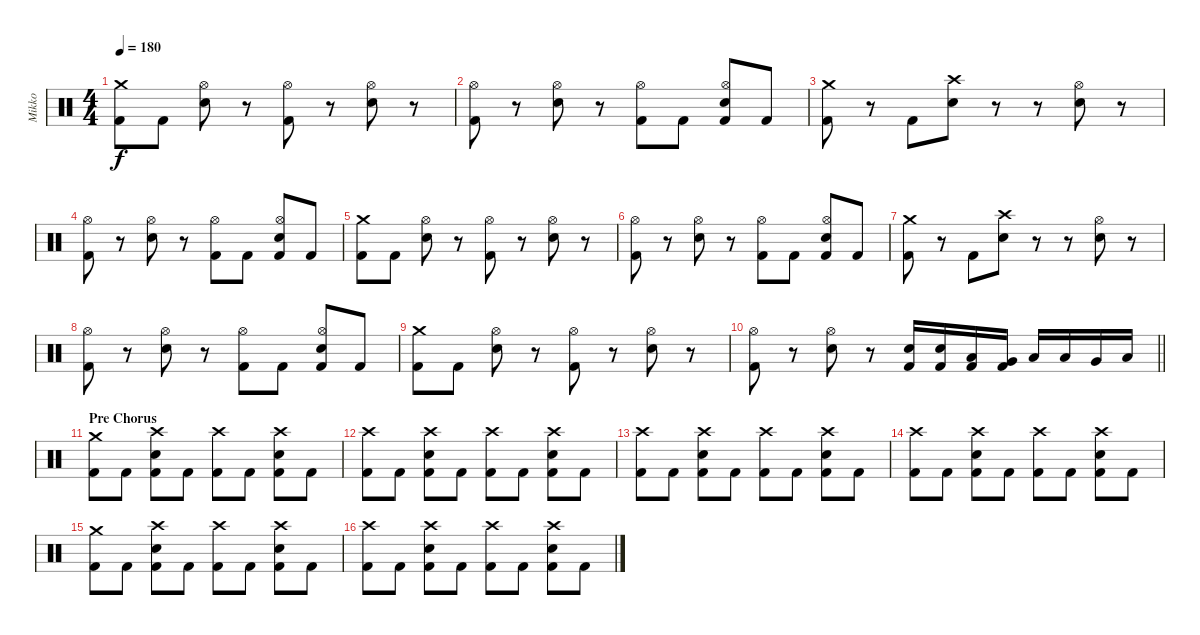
\track ("Mikko" "Mikko") {instrument percussion}
\staff {score}
\articulation defaults
\ts (4 4)
\tempo 180
\clef neutral
\ks c
("Crash medium (hit)" "Kick (hit) 2").8{dy f} "Kick (hit) 2".8 ("Hi-Hat (open)" "Electric Snare (hit)").8 r.8 ("Hi-Hat (open)" "Kick (hit) 2").8 r.8 ("Hi-Hat (open)" "Electric Snare (hit)").8 r.8 |
("Hi-Hat (open)" "Kick (hit) 2").8 r.8 ("Hi-Hat (open)" "Electric Snare (hit)").8 r.8 ("Hi-Hat (open)" "Kick (hit) 2").8 "Kick (hit) 2".8 ("Hi-Hat (open)" "Electric Snare (hit)" "Kick (hit) 2").8 "Kick (hit) 2".8 |
("Crash medium (hit)" "Kick (hit) 2").8 r.8 "Kick (hit) 2".8 ("Crash high (hit)" "Electric Snare (hit)").8 r.8 r.8 ("Hi-Hat (open)" "Electric Snare (hit)").8 r.8 |
("Hi-Hat (open)" "Kick (hit) 2").8 r.8 ("Hi-Hat (open)" "Electric Snare (hit)").8 r.8 ("Hi-Hat (open)" "Kick (hit) 2").8 "Kick (hit) 2".8 ("Hi-Hat (open)" "Electric Snare (hit)" "Kick (hit) 2").8 "Kick (hit) 2".8 |
("Crash medium (hit)" "Kick (hit) 2").8 "Kick (hit) 2".8 ("Hi-Hat (open)" "Electric Snare (hit)").8 r.8 ("Hi-Hat (open)" "Kick (hit) 2").8 r.8 ("Hi-Hat (open)" "Electric Snare (hit)").8 r.8 |
("Hi-Hat (open)" "Kick (hit) 2").8 r.8 ("Hi-Hat (open)" "Electric Snare (hit)").8 r.8 ("Hi-Hat (open)" "Kick (hit) 2").8 "Kick (hit) 2".8 ("Hi-Hat (open)" "Electric Snare (hit)" "Kick (hit) 2").8 "Kick (hit) 2".8 |
("Crash medium (hit)" "Kick (hit) 2").8 r.8 "Kick (hit) 2".8 ("Crash high (hit)" "Electric Snare (hit)").8 r.8 r.8 ("Hi-Hat (open)" "Electric Snare (hit)").8 r.8 |
("Hi-Hat (open)" "Kick (hit) 2").8 r.8 ("Hi-Hat (open)" "Electric Snare (hit)").8 r.8 ("Hi-Hat (open)" "Kick (hit) 2").8 "Kick (hit) 2".8 ("Hi-Hat (open)" "Electric Snare (hit)" "Kick (hit) 2").8 "Kick (hit) 2".8 |
("Crash medium (hit)" "Kick (hit) 2").8 "Kick (hit) 2".8 ("Hi-Hat (open)" "Electric Snare (hit)").8 r.8 ("Hi-Hat (open)" "Kick (hit) 2").8 r.8 ("Hi-Hat (open)" "Electric Snare (hit)").8 r.8 |
\barLineRight lightlight
("Hi-Hat (open)" "Kick (hit) 2").8 r.8 ("Hi-Hat (open)" "Electric Snare (hit)").8 r.8 ("Electric Snare (hit)" "Kick (hit) 2").16 ("Electric Snare (hit)" "Kick (hit) 2").16 ("Low Tom (hit)" "Kick (hit) 2").16 ("Very Low Tom (hit)" "Kick (hit) 2").16 "Low Floor Tom (hit)".16 "Low Tom (hit)".16 "Very Low Tom (hit)".16 "Low Floor Tom (hit)".16 |
\section ("" "Pre Chorus")
("Crash medium (hit)" "Kick (hit) 2").8 "Kick (hit) 2".8 ("Crash high (hit)" "Electric Snare (hit)" "Kick (hit) 2").8 "Kick (hit) 2".8 ("Crash high (hit)" "Kick (hit) 2").8 "Kick (hit) 2".8 ("Crash high (hit)" "Electric Snare (hit)" "Kick (hit) 2").8 "Kick (hit) 2".8 |
("Crash high (hit)" "Kick (hit) 2").8 "Kick (hit) 2".8 ("Crash high (hit)" "Electric Snare (hit)" "Kick (hit) 2").8 "Kick (hit) 2".8 ("Crash high (hit)" "Kick (hit) 2").8 "Kick (hit) 2".8 ("Crash high (hit)" "Electric Snare (hit)" "Kick (hit) 2").8 "Kick (hit) 2".8 |
("Crash high (hit)" "Kick (hit) 2").8 "Kick (hit) 2".8 ("Crash high (hit)" "Electric Snare (hit)" "Kick (hit) 2").8 "Kick (hit) 2".8 ("Crash high (hit)" "Kick (hit) 2").8 "Kick (hit) 2".8 ("Crash high (hit)" "Electric Snare (hit)" "Kick (hit) 2").8 "Kick (hit) 2".8 |
("Crash high (hit)" "Kick (hit) 2").8 "Kick (hit) 2".8 ("Crash high (hit)" "Electric Snare (hit)" "Kick (hit) 2").8 "Kick (hit) 2".8 ("Crash high (hit)" "Kick (hit) 2").8 "Kick (hit) 2".8 ("Crash high (hit)" "Electric Snare (hit)" "Kick (hit) 2").8 "Kick (hit) 2".8 |
("Crash medium (hit)" "Kick (hit) 2").8 "Kick (hit) 2".8 ("Crash high (hit)" "Electric Snare (hit)" "Kick (hit) 2").8 "Kick (hit) 2".8 ("Crash high (hit)" "Kick (hit) 2").8 "Kick (hit) 2".8 ("Crash high (hit)" "Electric Snare (hit)" "Kick (hit) 2").8 "Kick (hit) 2".8 |
("Crash high (hit)" "Kick (hit) 2").8 "Kick (hit) 2".8 ("Crash high (hit)" "Electric Snare (hit)" "Kick (hit) 2").8 "Kick (hit) 2".8 ("Crash high (hit)" "Kick (hit) 2").8 "Kick (hit) 2".8 ("Crash high (hit)" "Electric Snare (hit)" "Kick (hit) 2").8 "Kick (hit) 2".8
